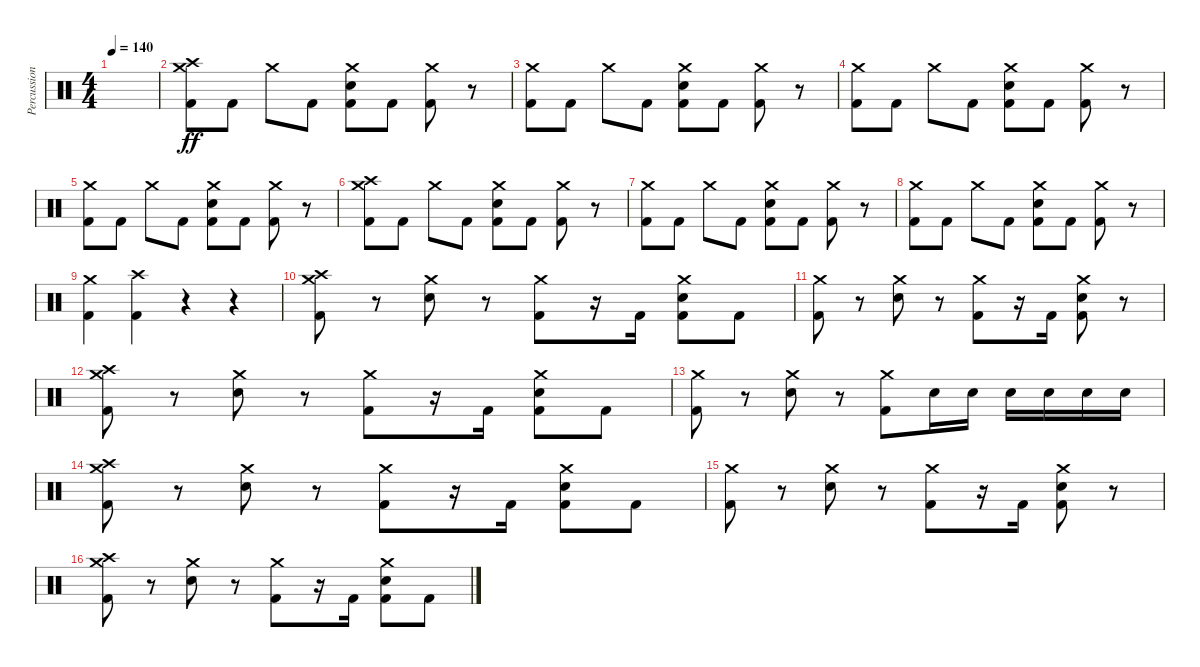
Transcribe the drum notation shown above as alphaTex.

\track ("Percussion" "Percussion") {instrument percussion}
\staff {score}
\articulation defaults
\ts (4 4)
\tempo 140
\clef neutral
\ks c
|
("Crash medium (hit)" "Crash high (hit)" "Kick (hit) 2").8{dy ff} "Kick (hit) 2".8 "Crash medium (hit)".8 "Kick (hit) 2".8 ("Crash medium (hit)" "Electric Snare (hit)" "Kick (hit) 2").8 "Kick (hit) 2".8 ("Crash medium (hit)" "Kick (hit) 2").8 r.8 |
("Crash medium (hit)" "Kick (hit) 2").8 "Kick (hit) 2".8 "Crash medium (hit)".8 "Kick (hit) 2".8 ("Crash medium (hit)" "Electric Snare (hit)" "Kick (hit) 2").8 "Kick (hit) 2".8 ("Crash medium (hit)" "Kick (hit) 2").8 r.8 |
("Crash medium (hit)" "Kick (hit) 2").8 "Kick (hit) 2".8 "Crash medium (hit)".8 "Kick (hit) 2".8 ("Crash medium (hit)" "Electric Snare (hit)" "Kick (hit) 2").8 "Kick (hit) 2".8 ("Crash medium (hit)" "Kick (hit) 2").8 r.8 |
("Crash medium (hit)" "Kick (hit) 2").8 "Kick (hit) 2".8 "Crash medium (hit)".8 "Kick (hit) 2".8 ("Crash medium (hit)" "Electric Snare (hit)" "Kick (hit) 2").8 "Kick (hit) 2".8 ("Crash medium (hit)" "Kick (hit) 2").8 r.8 |
("Crash medium (hit)" "Crash high (hit)" "Kick (hit) 2").8 "Kick (hit) 2".8 "Crash medium (hit)".8 "Kick (hit) 2".8 ("Crash medium (hit)" "Electric Snare (hit)" "Kick (hit) 2").8 "Kick (hit) 2".8 ("Crash medium (hit)" "Kick (hit) 2").8 r.8 |
("Crash medium (hit)" "Kick (hit) 2").8 "Kick (hit) 2".8 "Crash medium (hit)".8 "Kick (hit) 2".8 ("Crash medium (hit)" "Electric Snare (hit)" "Kick (hit) 2").8 "Kick (hit) 2".8 ("Crash medium (hit)" "Kick (hit) 2").8 r.8 |
("Crash medium (hit)" "Kick (hit) 2").8 "Kick (hit) 2".8 "Crash medium (hit)".8 "Kick (hit) 2".8 ("Crash medium (hit)" "Electric Snare (hit)" "Kick (hit) 2").8 "Kick (hit) 2".8 ("Crash medium (hit)" "Kick (hit) 2").8 r.8 |
("Crash medium (hit)" "Kick (hit) 2").4 ("Crash high (hit)" "Kick (hit) 2").4 r.4 r.4 |
("Crash medium (hit)" "Crash high (hit)" "Kick (hit) 2").8 r.8 ("Crash medium (hit)" "Electric Snare (hit)").8 r.8 ("Crash medium (hit)" "Kick (hit) 2").8 r.16 "Kick (hit) 2".16 ("Crash medium (hit)" "Electric Snare (hit)" "Kick (hit) 2").8 "Kick (hit) 2".8 |
("Crash medium (hit)" "Kick (hit) 2").8 r.8 ("Crash medium (hit)" "Electric Snare (hit)").8 r.8 ("Crash medium (hit)" "Kick (hit) 2").8 r.16 "Kick (hit) 2".16 ("Crash medium (hit)" "Electric Snare (hit)" "Kick (hit) 2").8 r.8 |
("Crash medium (hit)" "Crash high (hit)" "Kick (hit) 2").8 r.8 ("Crash medium (hit)" "Electric Snare (hit)").8 r.8 ("Crash medium (hit)" "Kick (hit) 2").8 r.16 "Kick (hit) 2".16 ("Crash medium (hit)" "Electric Snare (hit)" "Kick (hit) 2").8 "Kick (hit) 2".8 |
("Crash medium (hit)" "Kick (hit) 2").8 r.8 ("Crash medium (hit)" "Electric Snare (hit)").8 r.8 ("Crash medium (hit)" "Kick (hit) 2").8 "Electric Snare (hit)".16 "Electric Snare (hit)".16 "Electric Snare (hit)".16 "Electric Snare (hit)".16 "Electric Snare (hit)".16 "Electric Snare (hit)".16 |
("Crash medium (hit)" "Crash high (hit)" "Kick (hit) 2").8 r.8 ("Crash medium (hit)" "Electric Snare (hit)").8 r.8 ("Crash medium (hit)" "Kick (hit) 2").8 r.16 "Kick (hit) 2".16 ("Crash medium (hit)" "Electric Snare (hit)" "Kick (hit) 2").8 "Kick (hit) 2".8 |
("Crash medium (hit)" "Kick (hit) 2").8 r.8 ("Crash medium (hit)" "Electric Snare (hit)").8 r.8 ("Crash medium (hit)" "Kick (hit) 2").8 r.16 "Kick (hit) 2".16 ("Crash medium (hit)" "Electric Snare (hit)" "Kick (hit) 2").8 r.8 |
("Crash medium (hit)" "Crash high (hit)" "Kick (hit) 2").8 r.8 ("Crash medium (hit)" "Electric Snare (hit)").8 r.8 ("Crash medium (hit)" "Kick (hit) 2").8 r.16 "Kick (hit) 2".16 ("Crash medium (hit)" "Electric Snare (hit)" "Kick (hit) 2").8 "Kick (hit) 2".8
